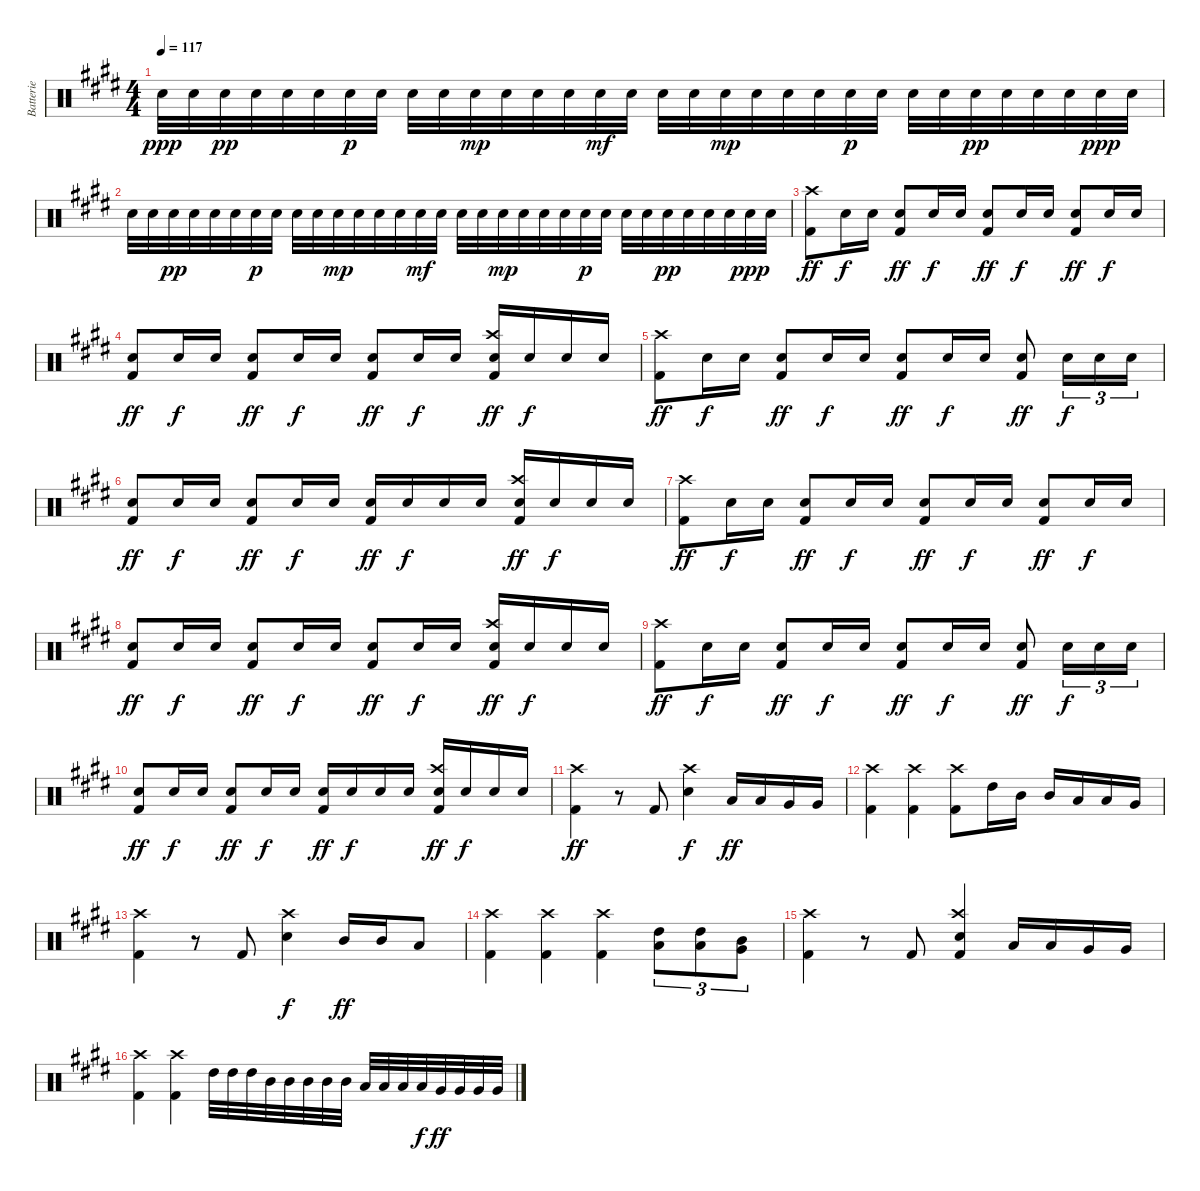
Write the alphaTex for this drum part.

\track ("Batterie" "Batterie") {instrument percussion}
\staff {score}
\articulation defaults
\ts (4 4)
\tempo 117
\clef neutral
\ks e "Snare (hit) 2".32{dy ppp} "Snare (hit) 2".32 "Snare (hit) 2".32{dy pp} "Snare (hit) 2".32 "Snare (hit) 2".32 "Snare (hit) 2".32 "Snare (hit) 2".32{dy p} "Snare (hit) 2".32 "Snare (hit) 2".32 "Snare (hit) 2".32 "Snare (hit) 2".32{dy mp} "Snare (hit) 2".32 "Snare (hit) 2".32 "Snare (hit) 2".32 "Snare (hit) 2".32{dy mf} "Snare (hit) 2".32 "Snare (hit) 2".32 "Snare (hit) 2".32 "Snare (hit) 2".32{dy mp} "Snare (hit) 2".32 "Snare (hit) 2".32 "Snare (hit) 2".32 "Snare (hit) 2".32{dy p} "Snare (hit) 2".32 "Snare (hit) 2".32 "Snare (hit) 2".32 "Snare (hit) 2".32{dy pp} "Snare (hit) 2".32 "Snare (hit) 2".32 "Snare (hit) 2".32 "Snare (hit) 2".32{dy ppp} "Snare (hit) 2".32
|
"Snare (hit) 2".32 "Snare (hit) 2".32 "Snare (hit) 2".32{dy pp} "Snare (hit) 2".32 "Snare (hit) 2".32 "Snare (hit) 2".32 "Snare (hit) 2".32{dy p} "Snare (hit) 2".32 "Snare (hit) 2".32 "Snare (hit) 2".32 "Snare (hit) 2".32{dy mp} "Snare (hit) 2".32 "Snare (hit) 2".32 "Snare (hit) 2".32 "Snare (hit) 2".32{dy mf} "Snare (hit) 2".32 "Snare (hit) 2".32 "Snare (hit) 2".32 "Snare (hit) 2".32{dy mp} "Snare (hit) 2".32 "Snare (hit) 2".32 "Snare (hit) 2".32 "Snare (hit) 2".32{dy p} "Snare (hit) 2".32 "Snare (hit) 2".32 "Snare (hit) 2".32 "Snare (hit) 2".32{dy pp} "Snare (hit) 2".32 "Snare (hit) 2".32 "Snare (hit) 2".32 "Snare (hit) 2".32{dy ppp} "Snare (hit) 2".32 |
("Crash high (hit)" "Kick (hit) 2").8{dy ff} "Snare (hit) 2".16{dy f} "Snare (hit) 2".16 ("Snare (hit) 2" "Kick (hit) 2").8{dy ff} "Snare (hit) 2".16{dy f} "Snare (hit) 2".16 ("Snare (hit) 2" "Kick (hit) 2").8{dy ff} "Snare (hit) 2".16{dy f} "Snare (hit) 2".16 ("Snare (hit) 2" "Kick (hit) 2").8{dy ff} "Snare (hit) 2".16{dy f} "Snare (hit) 2".16 |
("Snare (hit) 2" "Kick (hit) 2").8{dy ff} "Snare (hit) 2".16{dy f} "Snare (hit) 2".16 ("Snare (hit) 2" "Kick (hit) 2").8{dy ff} "Snare (hit) 2".16{dy f} "Snare (hit) 2".16 ("Snare (hit) 2" "Kick (hit) 2").8{dy ff} "Snare (hit) 2".16{dy f} "Snare (hit) 2".16 ("Crash high (hit)" "Snare (hit) 2" "Kick (hit) 2").16{dy ff} "Snare (hit) 2".16{dy f} "Snare (hit) 2".16 "Snare (hit) 2".16 |
("Crash high (hit)" "Kick (hit) 2").8{dy ff} "Snare (hit) 2".16{dy f} "Snare (hit) 2".16 ("Snare (hit) 2" "Kick (hit) 2").8{dy ff} "Snare (hit) 2".16{dy f} "Snare (hit) 2".16 ("Snare (hit) 2" "Kick (hit) 2").8{dy ff} "Snare (hit) 2".16{dy f} "Snare (hit) 2".16 ("Snare (hit) 2" "Kick (hit) 2").8{dy ff} "Snare (hit) 2".16{tu (3 2) dy f} "Snare (hit) 2".16{tu (3 2)} "Snare (hit) 2".16{tu (3 2)} |
("Snare (hit) 2" "Kick (hit) 2").8{dy ff} "Snare (hit) 2".16{dy f} "Snare (hit) 2".16 ("Snare (hit) 2" "Kick (hit) 2").8{dy ff} "Snare (hit) 2".16{dy f} "Snare (hit) 2".16 ("Snare (hit) 2" "Kick (hit) 2").16{dy ff} "Snare (hit) 2".16{dy f} "Snare (hit) 2".16 "Snare (hit) 2".16 ("Crash high (hit)" "Snare (hit) 2" "Kick (hit) 2").16{dy ff} "Snare (hit) 2".16{dy f} "Snare (hit) 2".16 "Snare (hit) 2".16 |
("Crash high (hit)" "Kick (hit) 2").8{dy ff} "Snare (hit) 2".16{dy f} "Snare (hit) 2".16 ("Snare (hit) 2" "Kick (hit) 2").8{dy ff} "Snare (hit) 2".16{dy f} "Snare (hit) 2".16 ("Snare (hit) 2" "Kick (hit) 2").8{dy ff} "Snare (hit) 2".16{dy f} "Snare (hit) 2".16 ("Snare (hit) 2" "Kick (hit) 2").8{dy ff} "Snare (hit) 2".16{dy f} "Snare (hit) 2".16 |
("Snare (hit) 2" "Kick (hit) 2").8{dy ff} "Snare (hit) 2".16{dy f} "Snare (hit) 2".16 ("Snare (hit) 2" "Kick (hit) 2").8{dy ff} "Snare (hit) 2".16{dy f} "Snare (hit) 2".16 ("Snare (hit) 2" "Kick (hit) 2").8{dy ff} "Snare (hit) 2".16{dy f} "Snare (hit) 2".16 ("Crash high (hit)" "Snare (hit) 2" "Kick (hit) 2").16{dy ff} "Snare (hit) 2".16{dy f} "Snare (hit) 2".16 "Snare (hit) 2".16 |
("Crash high (hit)" "Kick (hit) 2").8{dy ff} "Snare (hit) 2".16{dy f} "Snare (hit) 2".16 ("Snare (hit) 2" "Kick (hit) 2").8{dy ff} "Snare (hit) 2".16{dy f} "Snare (hit) 2".16 ("Snare (hit) 2" "Kick (hit) 2").8{dy ff} "Snare (hit) 2".16{dy f} "Snare (hit) 2".16 ("Snare (hit) 2" "Kick (hit) 2").8{dy ff} "Snare (hit) 2".16{tu (3 2) dy f} "Snare (hit) 2".16{tu (3 2)} "Snare (hit) 2".16{tu (3 2)} |
("Snare (hit) 2" "Kick (hit) 2").8{dy ff} "Snare (hit) 2".16{dy f} "Snare (hit) 2".16 ("Snare (hit) 2" "Kick (hit) 2").8{dy ff} "Snare (hit) 2".16{dy f} "Snare (hit) 2".16 ("Snare (hit) 2" "Kick (hit) 2").16{dy ff} "Snare (hit) 2".16{dy f} "Snare (hit) 2".16 "Snare (hit) 2".16 ("Crash high (hit)" "Snare (hit) 2" "Kick (hit) 2").16{dy ff} "Snare (hit) 2".16{dy f} "Snare (hit) 2".16 "Snare (hit) 2".16 |
("Crash high (hit)" "Kick (hit) 2").4{dy ff} r.8 "Kick (hit) 2".8 ("Crash high (hit)" "Snare (hit) 2").4{dy f} "Low Tom (hit)".16{dy ff} "Low Tom (hit)".16 "Very Low Tom (hit)".16 "Very Low Tom (hit)".16 |
("Crash high (hit)" "Kick (hit) 2").4 ("Crash high (hit)" "Kick (hit) 2").4 ("Crash high (hit)" "Kick (hit) 2").8 "High Tom (hit)".16 "Mid Tom (hit)".16 "Mid Tom (hit)".16 "Low Tom (hit)".16 "Low Tom (hit)".16 "Very Low Tom (hit)".16 |
("Crash high (hit)" "Kick (hit) 2").4 r.8 "Kick (hit) 2".8 ("Crash high (hit)" "Snare (hit) 2").4{dy f} "Mid Tom (hit)".16{dy ff} "Mid Tom (hit)".16 "Low Tom (hit)".8 |
("Crash high (hit)" "Kick (hit) 2").4 ("Crash high (hit)" "Kick (hit) 2").4 ("Crash high (hit)" "Kick (hit) 2").4 ("High Tom (hit)" "Low Tom (hit)").8{tu (3 2)} ("High Tom (hit)" "Low Tom (hit)").8{tu (3 2)} ("Mid Tom (hit)" "Very Low Tom (hit)").8{tu (3 2)} |
("Crash high (hit)" "Kick (hit) 2").4 r.8 "Kick (hit) 2".8 ("Crash high (hit)" "Snare (hit) 2" "Kick (hit) 2").4 "Low Tom (hit)".16 "Low Tom (hit)".16 "Very Low Tom (hit)".16 "Very Low Tom (hit)".16 |
("Crash high (hit)" "Kick (hit) 2").4 ("Crash high (hit)" "Kick (hit) 2").4 "High Tom (hit)".32 "High Tom (hit)".32 "High Tom (hit)".32 "Mid Tom (hit)".32 "Mid Tom (hit)".32 "Mid Tom (hit)".32 "Mid Tom (hit)".32 "Mid Tom (hit)".32 "Low Tom (hit)".32 "Low Tom (hit)".32 "Low Tom (hit)".32 "Low Tom (hit)".32{dy f} "Very Low Tom (hit)".32{dy ff} "Very Low Tom (hit)".32 "Very Low Tom (hit)".32 "Very Low Tom (hit)".32
